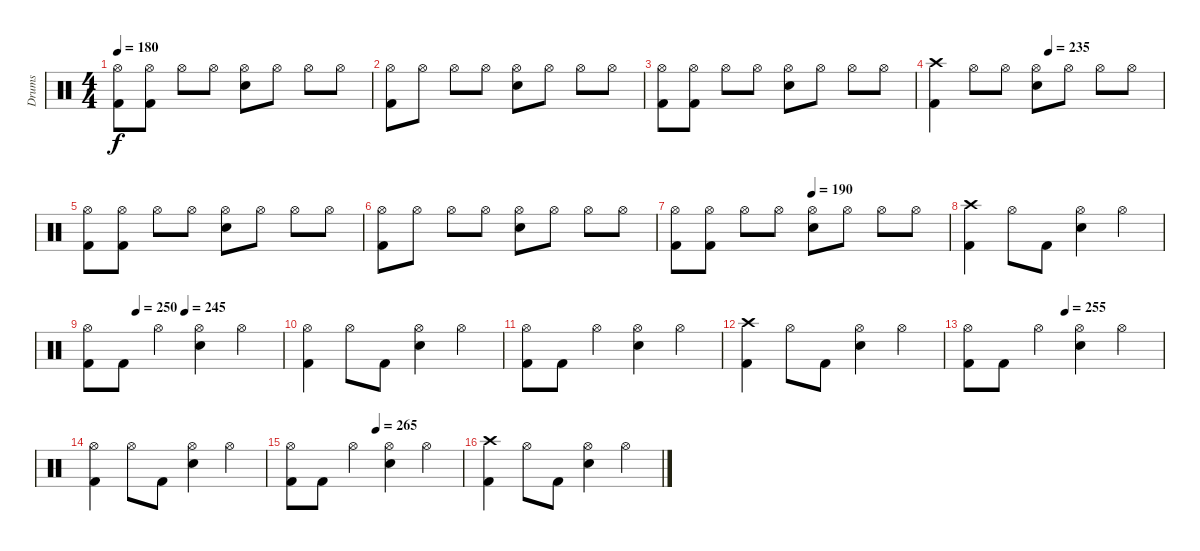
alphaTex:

\track ("Drums" "Drums") {instrument percussion}
\staff {score}
\articulation defaults
\ts (4 4)
\tempo 180
\clef neutral
\ks c
("Kick (hit) 2" "Hi-Hat (open)").8{dy f} ("Kick (hit) 2" "Hi-Hat (open)").8 "Hi-Hat (open)".8 "Hi-Hat (open)".8 ("Electric Snare (hit)" "Hi-Hat (open)").8 "Hi-Hat (open)".8 "Hi-Hat (open)".8 "Hi-Hat (open)".8 |
("Kick (hit) 2" "Hi-Hat (open)").8 "Hi-Hat (open)".8 "Hi-Hat (open)".8 "Hi-Hat (open)".8 ("Electric Snare (hit)" "Hi-Hat (open)").8 "Hi-Hat (open)".8 "Hi-Hat (open)".8 "Hi-Hat (open)".8 |
("Kick (hit) 2" "Hi-Hat (open)").8 ("Kick (hit) 2" "Hi-Hat (open)").8 "Hi-Hat (open)".8 "Hi-Hat (open)".8 ("Electric Snare (hit)" "Hi-Hat (open)").8 "Hi-Hat (open)".8 "Hi-Hat (open)".8 "Hi-Hat (open)".8 |
\tempo (235 0.5)
("Kick (hit) 2" "Crash high (hit)").4 "Hi-Hat (open)".8 "Hi-Hat (open)".8 ("Electric Snare (hit)" "Hi-Hat (open)").8 "Hi-Hat (open)".8 "Hi-Hat (open)".8 "Hi-Hat (open)".8 |
("Kick (hit) 2" "Hi-Hat (open)").8 ("Kick (hit) 2" "Hi-Hat (open)").8 "Hi-Hat (open)".8 "Hi-Hat (open)".8 ("Electric Snare (hit)" "Hi-Hat (open)").8 "Hi-Hat (open)".8 "Hi-Hat (open)".8 "Hi-Hat (open)".8 |
("Kick (hit) 2" "Hi-Hat (open)").8 "Hi-Hat (open)".8 "Hi-Hat (open)".8 "Hi-Hat (open)".8 ("Electric Snare (hit)" "Hi-Hat (open)").8 "Hi-Hat (open)".8 "Hi-Hat (open)".8 "Hi-Hat (open)".8 |
\tempo (190 0.5)
("Kick (hit) 2" "Hi-Hat (open)").8 ("Kick (hit) 2" "Hi-Hat (open)").8 "Hi-Hat (open)".8 "Hi-Hat (open)".8 ("Electric Snare (hit)" "Hi-Hat (open)").8 "Hi-Hat (open)".8 "Hi-Hat (open)".8 "Hi-Hat (open)".8 |
("Kick (hit) 2" "Crash high (hit)").4 "Hi-Hat (open)".8 "Kick (hit) 2".8 ("Electric Snare (hit)" "Hi-Hat (open)").4 "Hi-Hat (open)".4 |
\tempo (250 0.25)
\tempo (245 0.5)
("Kick (hit) 2" "Hi-Hat (open)").8 "Kick (hit) 2".8 "Hi-Hat (open)".4 ("Electric Snare (hit)" "Hi-Hat (open)").4 "Hi-Hat (open)".4 |
("Kick (hit) 2" "Hi-Hat (open)").4 "Hi-Hat (open)".8 "Kick (hit) 2".8 ("Electric Snare (hit)" "Hi-Hat (open)").4 "Hi-Hat (open)".4 |
("Kick (hit) 2" "Hi-Hat (open)").8 "Kick (hit) 2".8 "Hi-Hat (open)".4 ("Electric Snare (hit)" "Hi-Hat (open)").4 "Hi-Hat (open)".4 |
("Kick (hit) 2" "Crash high (hit)").4 "Hi-Hat (open)".8 "Kick (hit) 2".8 ("Electric Snare (hit)" "Hi-Hat (open)").4 "Hi-Hat (open)".4 |
\tempo (255 0.5)
("Kick (hit) 2" "Hi-Hat (open)").8 "Kick (hit) 2".8 "Hi-Hat (open)".4 ("Electric Snare (hit)" "Hi-Hat (open)").4 "Hi-Hat (open)".4 |
("Kick (hit) 2" "Hi-Hat (open)").4 "Hi-Hat (open)".8 "Kick (hit) 2".8 ("Electric Snare (hit)" "Hi-Hat (open)").4 "Hi-Hat (open)".4 |
\tempo (265 0.5)
("Kick (hit) 2" "Hi-Hat (open)").8 "Kick (hit) 2".8 "Hi-Hat (open)".4 ("Electric Snare (hit)" "Hi-Hat (open)").4 "Hi-Hat (open)".4 |
("Kick (hit) 2" "Crash high (hit)").4 "Hi-Hat (open)".8 "Kick (hit) 2".8 ("Electric Snare (hit)" "Hi-Hat (open)").4 "Hi-Hat (open)".4
